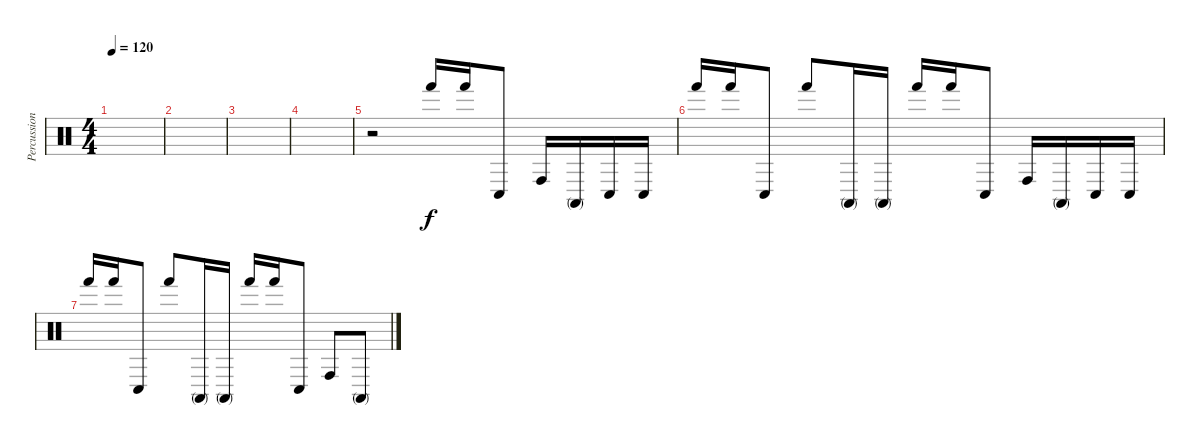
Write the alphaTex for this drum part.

\track ("Percussion" "Percussion") {instrument percussion}
\staff {score}
\articulation defaults
\ts (4 4)
\tempo 120
\clef neutral
\ks c
|
|
|
|
r.2 "Hand (hit)".16 "Hand (hit)".16 "Conga low (hit)".8 "Conga high (hit)".16 "Conga high (mute)".16 "Conga low (hit)".16 "Conga low (hit)".16 |
"Hand (hit)".16 "Hand (hit)".16 "Conga low (hit)".8 "Hand (hit)".8 "Conga high (mute)".16 "Conga high (mute)".16 "Hand (hit)".16 "Hand (hit)".16 "Conga low (hit)".8 "Conga high (hit)".16 "Conga high (mute)".16 "Conga low (hit)".16 "Conga low (hit)".16 |
"Hand (hit)".16 "Hand (hit)".16 "Conga low (hit)".8 "Hand (hit)".8 "Conga high (mute)".16 "Conga high (mute)".16 "Hand (hit)".16 "Hand (hit)".16 "Conga low (hit)".8 "Conga high (hit)".8 "Conga high (mute)".8
